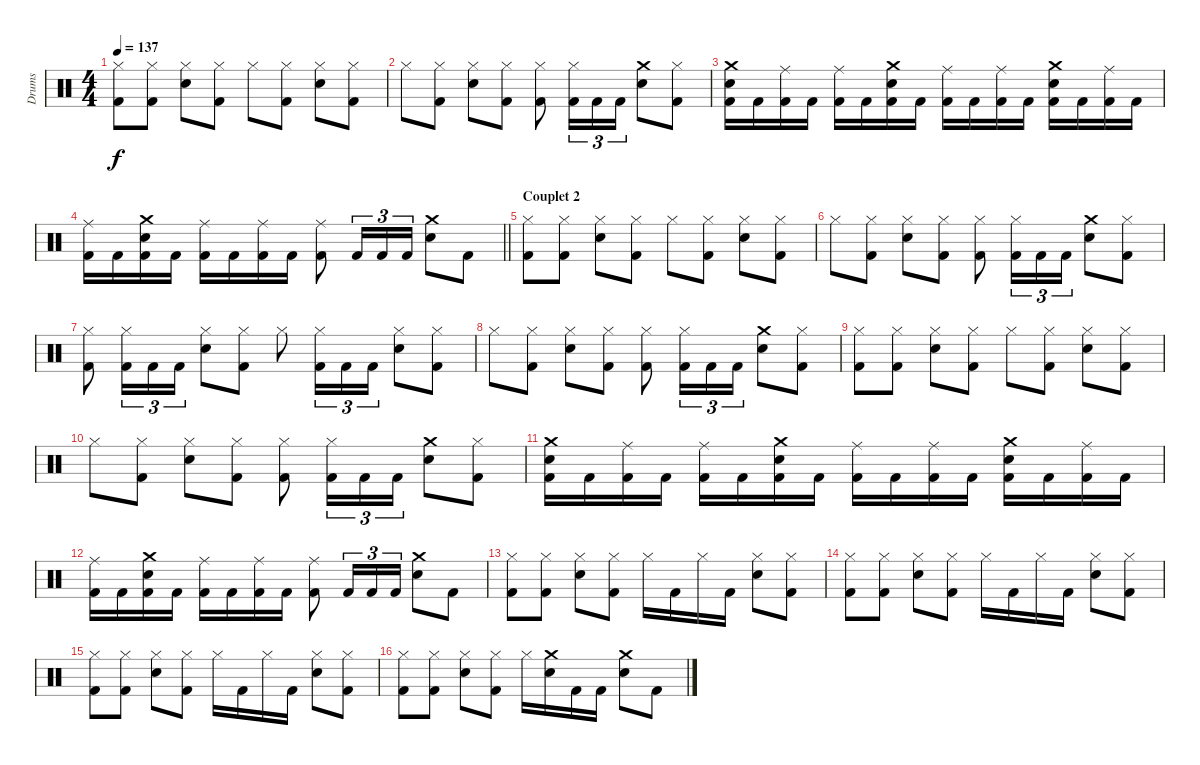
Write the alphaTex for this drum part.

\track ("Drums" "Drums") {instrument percussion}
\staff {score}
\articulation defaults
\ts (4 4)
\tempo 137
\clef neutral
\ks c
("Hi-Hat (closed)" "Kick (hit) 2").8{dy f} ("Hi-Hat (closed)" "Kick (hit) 2").8 ("Hi-Hat (closed)" "Electric Snare (hit)").8 ("Hi-Hat (closed)" "Kick (hit) 2").8 "Hi-Hat (closed)".8 ("Hi-Hat (closed)" "Kick (hit) 2").8 ("Hi-Hat (closed)" "Electric Snare (hit)").8 ("Hi-Hat (closed)" "Kick (hit) 2").8 |
"Hi-Hat (closed)".8 ("Hi-Hat (closed)" "Kick (hit) 2").8 ("Hi-Hat (closed)" "Electric Snare (hit)").8 ("Hi-Hat (closed)" "Kick (hit) 2").8 ("Hi-Hat (closed)" "Kick (hit) 2").8 ("Hi-Hat (closed)" "Kick (hit) 2").16{tu (3 2)} "Kick (hit) 2".16{tu (3 2)} "Kick (hit) 2".16{tu (3 2)} ("Crash medium (hit)" "Electric Snare (hit)").8 ("Hi-Hat (closed)" "Kick (hit) 2").8 |
("Crash medium (hit)" "Electric Snare (hit)" "Kick (hit) 2").16 "Kick (hit) 2".16 ("Ride (middle)" "Kick (hit) 2").16 "Kick (hit) 2".16 ("Ride (middle)" "Kick (hit) 2").16 "Kick (hit) 2".16 ("Crash medium (hit)" "Electric Snare (hit)" "Kick (hit) 2").16 "Kick (hit) 2".16 ("Ride (middle)" "Kick (hit) 2").16 "Kick (hit) 2".16 ("Ride (middle)" "Kick (hit) 2").16 "Kick (hit) 2".16 ("Crash medium (hit)" "Electric Snare (hit)" "Kick (hit) 2").16 "Kick (hit) 2".16 ("Ride (middle)" "Kick (hit) 2").16 "Kick (hit) 2".16 |
\barLineRight lightlight
("Ride (middle)" "Kick (hit) 2").16 "Kick (hit) 2".16 ("Crash medium (hit)" "Electric Snare (hit)" "Kick (hit) 2").16 "Kick (hit) 2".16 ("Ride (middle)" "Kick (hit) 2").16 "Kick (hit) 2".16 ("Ride (middle)" "Kick (hit) 2").16 "Kick (hit) 2".16 ("Ride (middle)" "Kick (hit) 2").8 "Kick (hit) 2".16{tu (3 2)} "Kick (hit) 2".16{tu (3 2)} "Kick (hit) 2".16{tu (3 2)} ("Crash medium (hit)" "Electric Snare (hit)").8 "Kick (hit) 2".8 |
\section ("" "Couplet 2")
("Hi-Hat (closed)" "Kick (hit) 2").8 ("Hi-Hat (closed)" "Kick (hit) 2").8 ("Hi-Hat (closed)" "Electric Snare (hit)").8 ("Hi-Hat (closed)" "Kick (hit) 2").8 "Hi-Hat (closed)".8 ("Hi-Hat (closed)" "Kick (hit) 2").8 ("Hi-Hat (closed)" "Electric Snare (hit)").8 ("Hi-Hat (closed)" "Kick (hit) 2").8 |
"Hi-Hat (closed)".8 ("Hi-Hat (closed)" "Kick (hit) 2").8 ("Hi-Hat (closed)" "Electric Snare (hit)").8 ("Hi-Hat (closed)" "Kick (hit) 2").8 ("Hi-Hat (closed)" "Kick (hit) 2").8 ("Hi-Hat (closed)" "Kick (hit) 2").16{tu (3 2)} "Kick (hit) 2".16{tu (3 2)} "Kick (hit) 2".16{tu (3 2)} ("Crash medium (hit)" "Electric Snare (hit)").8 ("Hi-Hat (closed)" "Kick (hit) 2").8 |
("Hi-Hat (closed)" "Kick (hit) 2").8 ("Hi-Hat (closed)" "Kick (hit) 2").16{tu (3 2)} "Kick (hit) 2".16{tu (3 2)} "Kick (hit) 2".16{tu (3 2)} ("Hi-Hat (closed)" "Electric Snare (hit)").8 ("Hi-Hat (closed)" "Kick (hit) 2").8 "Hi-Hat (closed)".8 ("Hi-Hat (closed)" "Kick (hit) 2").16{tu (3 2)} "Kick (hit) 2".16{tu (3 2)} "Kick (hit) 2".16{tu (3 2)} ("Hi-Hat (closed)" "Electric Snare (hit)").8 ("Hi-Hat (closed)" "Kick (hit) 2").8 |
"Hi-Hat (closed)".8 ("Hi-Hat (closed)" "Kick (hit) 2").8 ("Hi-Hat (closed)" "Electric Snare (hit)").8 ("Hi-Hat (closed)" "Kick (hit) 2").8 ("Hi-Hat (closed)" "Kick (hit) 2").8 ("Hi-Hat (closed)" "Kick (hit) 2").16{tu (3 2)} "Kick (hit) 2".16{tu (3 2)} "Kick (hit) 2".16{tu (3 2)} ("Crash medium (hit)" "Electric Snare (hit)").8 ("Hi-Hat (closed)" "Kick (hit) 2").8 |
("Hi-Hat (closed)" "Kick (hit) 2").8 ("Hi-Hat (closed)" "Kick (hit) 2").8 ("Hi-Hat (closed)" "Electric Snare (hit)").8 ("Hi-Hat (closed)" "Kick (hit) 2").8 "Hi-Hat (closed)".8 ("Hi-Hat (closed)" "Kick (hit) 2").8 ("Hi-Hat (closed)" "Electric Snare (hit)").8 ("Hi-Hat (closed)" "Kick (hit) 2").8 |
"Hi-Hat (closed)".8 ("Hi-Hat (closed)" "Kick (hit) 2").8 ("Hi-Hat (closed)" "Electric Snare (hit)").8 ("Hi-Hat (closed)" "Kick (hit) 2").8 ("Hi-Hat (closed)" "Kick (hit) 2").8 ("Hi-Hat (closed)" "Kick (hit) 2").16{tu (3 2)} "Kick (hit) 2".16{tu (3 2)} "Kick (hit) 2".16{tu (3 2)} ("Crash medium (hit)" "Electric Snare (hit)").8 ("Hi-Hat (closed)" "Kick (hit) 2").8 |
("Crash medium (hit)" "Electric Snare (hit)" "Kick (hit) 2").16 "Kick (hit) 2".16 ("Ride (middle)" "Kick (hit) 2").16 "Kick (hit) 2".16 ("Ride (middle)" "Kick (hit) 2").16 "Kick (hit) 2".16 ("Crash medium (hit)" "Electric Snare (hit)" "Kick (hit) 2").16 "Kick (hit) 2".16 ("Ride (middle)" "Kick (hit) 2").16 "Kick (hit) 2".16 ("Ride (middle)" "Kick (hit) 2").16 "Kick (hit) 2".16 ("Crash medium (hit)" "Electric Snare (hit)" "Kick (hit) 2").16 "Kick (hit) 2".16 ("Ride (middle)" "Kick (hit) 2").16 "Kick (hit) 2".16 |
("Ride (middle)" "Kick (hit) 2").16 "Kick (hit) 2".16 ("Crash medium (hit)" "Electric Snare (hit)" "Kick (hit) 2").16 "Kick (hit) 2".16 ("Ride (middle)" "Kick (hit) 2").16 "Kick (hit) 2".16 ("Ride (middle)" "Kick (hit) 2").16 "Kick (hit) 2".16 ("Ride (middle)" "Kick (hit) 2").8 "Kick (hit) 2".16{tu (3 2)} "Kick (hit) 2".16{tu (3 2)} "Kick (hit) 2".16{tu (3 2)} ("Crash medium (hit)" "Electric Snare (hit)").8 "Kick (hit) 2".8 |
("Hi-Hat (closed)" "Kick (hit) 2").8 ("Hi-Hat (closed)" "Kick (hit) 2").8 ("Hi-Hat (closed)" "Electric Snare (hit)").8 ("Hi-Hat (closed)" "Kick (hit) 2").8 "Hi-Hat (closed)".16 "Kick (hit) 2".16 "Hi-Hat (closed)".16 "Kick (hit) 2".16 ("Hi-Hat (closed)" "Electric Snare (hit)").8 ("Hi-Hat (closed)" "Kick (hit) 2").8 |
("Hi-Hat (closed)" "Kick (hit) 2").8 ("Hi-Hat (closed)" "Kick (hit) 2").8 ("Hi-Hat (closed)" "Electric Snare (hit)").8 ("Hi-Hat (closed)" "Kick (hit) 2").8 "Hi-Hat (closed)".16 "Kick (hit) 2".16 "Hi-Hat (closed)".16 "Kick (hit) 2".16 ("Hi-Hat (closed)" "Electric Snare (hit)").8 ("Hi-Hat (closed)" "Kick (hit) 2").8 |
("Hi-Hat (closed)" "Kick (hit) 2").8 ("Hi-Hat (closed)" "Kick (hit) 2").8 ("Hi-Hat (closed)" "Electric Snare (hit)").8 ("Hi-Hat (closed)" "Kick (hit) 2").8 "Hi-Hat (closed)".16 "Kick (hit) 2".16 "Hi-Hat (closed)".16 "Kick (hit) 2".16 ("Hi-Hat (closed)" "Electric Snare (hit)").8 ("Hi-Hat (closed)" "Kick (hit) 2").8 |
("Hi-Hat (closed)" "Kick (hit) 2").8 ("Hi-Hat (closed)" "Kick (hit) 2").8 ("Hi-Hat (closed)" "Electric Snare (hit)").8 ("Hi-Hat (closed)" "Kick (hit) 2").8 "Hi-Hat (closed)".16 ("Crash medium (hit)" "Electric Snare (hit)").16 "Kick (hit) 2".16 "Kick (hit) 2".16 ("Crash medium (hit)" "Electric Snare (hit)").8 "Kick (hit) 2".8
